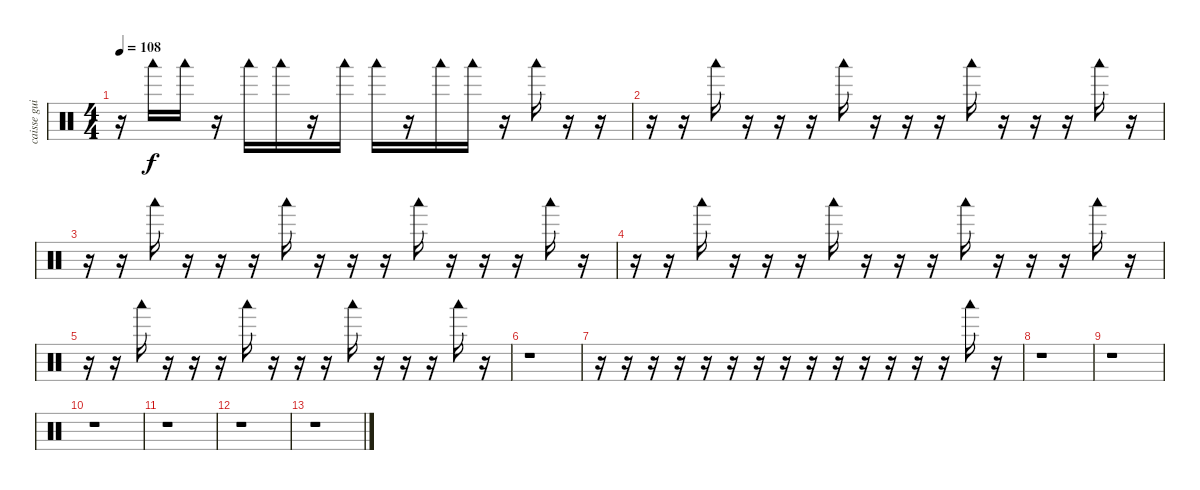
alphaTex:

\track ("caisse guitare Di Meola" "caisse gui") {instrument percussion}
\staff {score}
\articulation defaults
\ts (4 4)
\tempo 108
\clef neutral
\ks c
r.16{dy f} "Woodblock low (hit)".16 "Woodblock low (hit)".16 r.16 "Woodblock low (hit)".16 "Woodblock low (hit)".16 r.16 "Woodblock low (hit)".16 "Woodblock low (hit)".16 r.16 "Woodblock low (hit)".16 "Woodblock low (hit)".16 r.16 "Woodblock low (hit)".16 r.16 r.16 |
r.16 r.16 "Woodblock low (hit)".16 r.16 r.16 r.16 "Woodblock low (hit)".16 r.16 r.16 r.16 "Woodblock low (hit)".16 r.16 r.16 r.16 "Woodblock low (hit)".16 r.16 |
r.16 r.16 "Woodblock low (hit)".16 r.16 r.16 r.16 "Woodblock low (hit)".16 r.16 r.16 r.16 "Woodblock low (hit)".16 r.16 r.16 r.16 "Woodblock low (hit)".16 r.16 |
r.16 r.16 "Woodblock low (hit)".16 r.16 r.16 r.16 "Woodblock low (hit)".16 r.16 r.16 r.16 "Woodblock low (hit)".16 r.16 r.16 r.16 "Woodblock low (hit)".16 r.16 |
r.16 r.16 "Woodblock low (hit)".16 r.16 r.16 r.16 "Woodblock low (hit)".16 r.16 r.16 r.16 "Woodblock low (hit)".16 r.16 r.16 r.16 "Woodblock low (hit)".16 r.16 |
r.1 |
r.16 r.16 r.16 r.16 r.16 r.16 r.16 r.16 r.16 r.16 r.16 r.16 r.16 r.16 "Woodblock low (hit)".16 r.16 |
r.1 |
r.1 |
r.1 |
r.1 |
r.1 |
r.1
